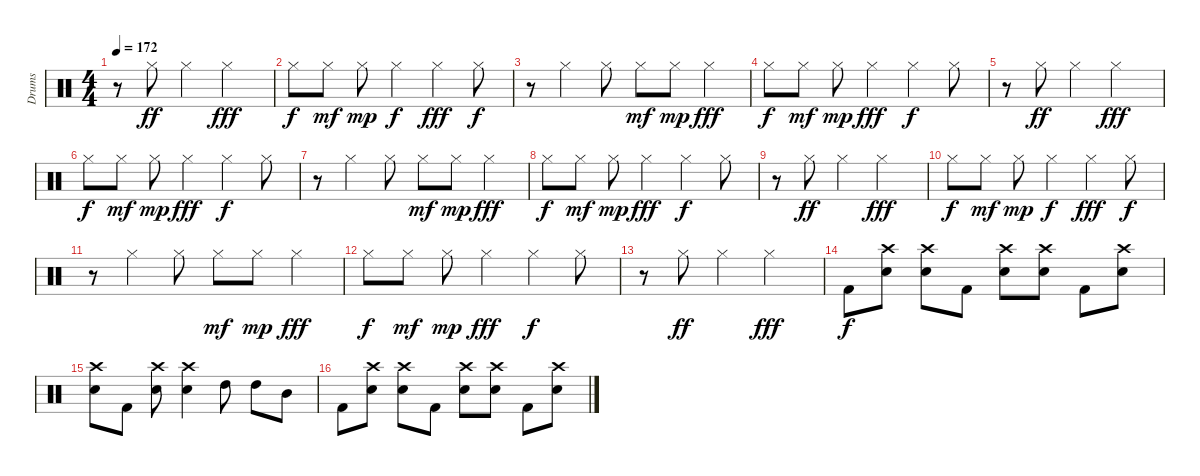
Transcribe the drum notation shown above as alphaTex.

\track ("Drums" "Drums") {instrument percussion}
\staff {score}
\articulation defaults
\ts (4 4)
\tempo 172
\clef neutral
\ks c
r.8{dy f} "Hi-Hat (closed)".8{dy ff} "Hi-Hat (closed)".4 "Hi-Hat (closed)".2{dy fff} |
"Hi-Hat (closed)".8{dy f} "Hi-Hat (closed)".8{dy mf} "Hi-Hat (closed)".8{dy mp} "Hi-Hat (closed)".4{dy f} "Hi-Hat (closed)".4{dy fff} "Hi-Hat (closed)".8{dy f} |
r.8 "Hi-Hat (closed)".4 "Hi-Hat (closed)".8 "Hi-Hat (closed)".8{dy mf} "Hi-Hat (closed)".8{dy mp} "Hi-Hat (closed)".4{dy fff} |
"Hi-Hat (closed)".8{dy f} "Hi-Hat (closed)".8{dy mf} "Hi-Hat (closed)".8{dy mp} "Hi-Hat (closed)".4{dy fff} "Hi-Hat (closed)".4{dy f} "Hi-Hat (closed)".8 |
r.8 "Hi-Hat (closed)".8{dy ff} "Hi-Hat (closed)".4 "Hi-Hat (closed)".2{dy fff} |
"Hi-Hat (closed)".8{dy f} "Hi-Hat (closed)".8{dy mf} "Hi-Hat (closed)".8{dy mp} "Hi-Hat (closed)".4{dy fff} "Hi-Hat (closed)".4{dy f} "Hi-Hat (closed)".8 |
r.8 "Hi-Hat (closed)".4 "Hi-Hat (closed)".8 "Hi-Hat (closed)".8{dy mf} "Hi-Hat (closed)".8{dy mp} "Hi-Hat (closed)".4{dy fff} |
"Hi-Hat (closed)".8{dy f} "Hi-Hat (closed)".8{dy mf} "Hi-Hat (closed)".8{dy mp} "Hi-Hat (closed)".4{dy fff} "Hi-Hat (closed)".4{dy f} "Hi-Hat (closed)".8 |
r.8 "Hi-Hat (closed)".8{dy ff} "Hi-Hat (closed)".4 "Hi-Hat (closed)".2{dy fff} |
"Hi-Hat (closed)".8{dy f} "Hi-Hat (closed)".8{dy mf} "Hi-Hat (closed)".8{dy mp} "Hi-Hat (closed)".4{dy f} "Hi-Hat (closed)".4{dy fff} "Hi-Hat (closed)".8{dy f} |
r.8 "Hi-Hat (closed)".4 "Hi-Hat (closed)".8 "Hi-Hat (closed)".8{dy mf} "Hi-Hat (closed)".8{dy mp} "Hi-Hat (closed)".4{dy fff} |
"Hi-Hat (closed)".8{dy f} "Hi-Hat (closed)".8{dy mf} "Hi-Hat (closed)".8{dy mp} "Hi-Hat (closed)".4{dy fff} "Hi-Hat (closed)".4{dy f} "Hi-Hat (closed)".8 |
r.8 "Hi-Hat (closed)".8{dy ff} "Hi-Hat (closed)".4 "Hi-Hat (closed)".2{dy fff} |
"Kick (hit) 2".8{dy f} ("Crash high (hit)" "Snare (hit) 2").8 ("Crash high (hit)" "Snare (hit) 2").8 "Kick (hit) 2".8 ("Crash high (hit)" "Snare (hit) 2").8 ("Crash high (hit)" "Snare (hit) 2").8 "Kick (hit) 2".8 ("Crash high (hit)" "Snare (hit) 2").8 |
("Crash high (hit)" "Snare (hit) 2").8 "Kick (hit) 2".8 ("Crash high (hit)" "Snare (hit) 2").8 ("Crash high (hit)" "Snare (hit) 2").4 "High Tom (hit)".8 "High Tom (hit)".8 "Mid Tom (hit)".8 |
"Kick (hit) 2".8 ("Crash high (hit)" "Snare (hit) 2").8 ("Crash high (hit)" "Snare (hit) 2").8 "Kick (hit) 2".8 ("Crash high (hit)" "Snare (hit) 2").8 ("Crash high (hit)" "Snare (hit) 2").8 "Kick (hit) 2".8 ("Crash high (hit)" "Snare (hit) 2").8
